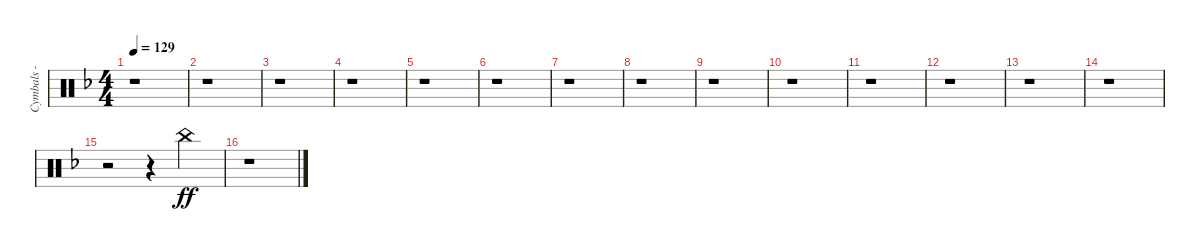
\track ("Cymbals - china" "Cymbals - ") {instrument percussion}
\staff {score}
\articulation defaults
\ts (4 4)
\tempo 129
\clef neutral
\ks dminor
r.1{dy ff} |
r.1 |
r.1 |
r.1 |
r.1 |
r.1 |
r.1 |
r.1 |
r.1 |
r.1 |
r.1 |
r.1 |
r.1 |
r.1 |
r.2 r.4{beam merge} "China (hit)".4 |
r.1
